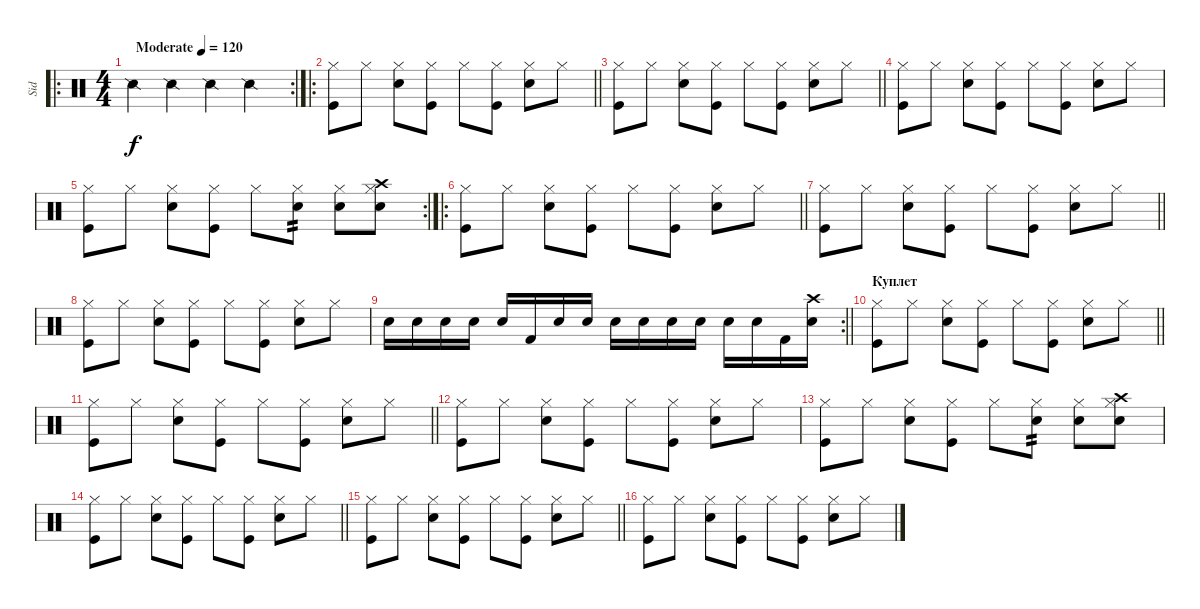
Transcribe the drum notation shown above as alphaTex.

\track ("Sid" "Sid") {instrument percussion}
\staff {score}
\articulation defaults
\ro
\rc 2
\ts (4 4)
\tempo (120 "Moderate")
\clef neutral
\ks c "Snare (side stick) 2".4{dy f} "Snare (side stick) 2".4 "Snare (side stick) 2".4 "Snare (side stick) 2".4
|
\ro
\barLineRight lightlight
("Kick (hit)" "Hi-Hat (closed)").8 "Hi-Hat (closed)".8 ("Electric Snare (hit)" "Hi-Hat (closed)").8 ("Kick (hit)" "Hi-Hat (closed)").8 "Hi-Hat (closed)".8 ("Kick (hit)" "Hi-Hat (closed)").8 ("Electric Snare (hit)" "Hi-Hat (closed)").8 "Hi-Hat (closed)".8 |
\barLineRight lightlight
("Kick (hit)" "Hi-Hat (closed)").8 "Hi-Hat (closed)".8 ("Electric Snare (hit)" "Hi-Hat (closed)").8 ("Kick (hit)" "Hi-Hat (closed)").8 "Hi-Hat (closed)".8 ("Kick (hit)" "Hi-Hat (closed)").8 ("Electric Snare (hit)" "Hi-Hat (closed)").8 "Hi-Hat (closed)".8 |
("Kick (hit)" "Hi-Hat (closed)").8 "Hi-Hat (closed)".8 ("Electric Snare (hit)" "Hi-Hat (closed)").8 ("Kick (hit)" "Hi-Hat (closed)").8 "Hi-Hat (closed)".8 ("Kick (hit)" "Hi-Hat (closed)").8 ("Electric Snare (hit)" "Hi-Hat (closed)").8 "Hi-Hat (closed)".8 |
\rc 2
("Kick (hit)" "Hi-Hat (closed)").8 "Hi-Hat (closed)".8 ("Electric Snare (hit)" "Hi-Hat (closed)").8 ("Kick (hit)" "Hi-Hat (closed)").8 "Hi-Hat (closed)".8 ("Snare (hit) 2" "Hi-Hat (closed)").8{tp 2} ("Electric Snare (hit)" "Hi-Hat (closed)").8 ("Snare (hit) 2" "Crash high (hit)" "Hi-Hat (closed)").8 |
\ro
\barLineRight lightlight
("Kick (hit)" "Hi-Hat (closed)").8 "Hi-Hat (closed)".8 ("Electric Snare (hit)" "Hi-Hat (closed)").8 ("Kick (hit)" "Hi-Hat (closed)").8 "Hi-Hat (closed)".8 ("Kick (hit)" "Hi-Hat (closed)").8 ("Electric Snare (hit)" "Hi-Hat (closed)").8 "Hi-Hat (closed)".8 |
\barLineRight lightlight
("Kick (hit)" "Hi-Hat (closed)").8 "Hi-Hat (closed)".8 ("Electric Snare (hit)" "Hi-Hat (closed)").8 ("Kick (hit)" "Hi-Hat (closed)").8 "Hi-Hat (closed)".8 ("Kick (hit)" "Hi-Hat (closed)").8 ("Electric Snare (hit)" "Hi-Hat (closed)").8 "Hi-Hat (closed)".8 |
("Kick (hit)" "Hi-Hat (closed)").8 "Hi-Hat (closed)".8 ("Electric Snare (hit)" "Hi-Hat (closed)").8 ("Kick (hit)" "Hi-Hat (closed)").8 "Hi-Hat (closed)".8 ("Kick (hit)" "Hi-Hat (closed)").8 ("Electric Snare (hit)" "Hi-Hat (closed)").8 "Hi-Hat (closed)".8 |
\rc 2
\barLineRight lightlight "Snare (hit) 2".16 "Snare (hit) 2".16 "Snare (hit) 2".16 "Electric Snare (hit)".16 "Snare (hit) 2".16 "Kick (hit) 2".16 "Electric Snare (hit)".16 "Snare (hit) 2".16 "Snare (hit) 2".16 "Snare (hit) 2".16 "Snare (hit) 2".16 "Electric Snare (hit)".16 "Snare (hit) 2".16 "Electric Snare (hit)".16 "Kick (hit) 2".16
("Crash high (hit)" "Snare (hit) 2").16 |
\section ("" "Куплет")
\barLineRight lightlight
("Kick (hit)" "Hi-Hat (closed)").8 "Hi-Hat (closed)".8 ("Electric Snare (hit)" "Hi-Hat (closed)").8 ("Kick (hit)" "Hi-Hat (closed)").8 "Hi-Hat (closed)".8 ("Kick (hit)" "Hi-Hat (closed)").8 ("Electric Snare (hit)" "Hi-Hat (closed)").8 "Hi-Hat (closed)".8 |
\barLineRight lightlight
("Kick (hit)" "Hi-Hat (closed)").8 "Hi-Hat (closed)".8 ("Electric Snare (hit)" "Hi-Hat (closed)").8 ("Kick (hit)" "Hi-Hat (closed)").8 "Hi-Hat (closed)".8 ("Kick (hit)" "Hi-Hat (closed)").8 ("Electric Snare (hit)" "Hi-Hat (closed)").8 "Hi-Hat (closed)".8 |
("Kick (hit)" "Hi-Hat (closed)").8 "Hi-Hat (closed)".8 ("Electric Snare (hit)" "Hi-Hat (closed)").8 ("Kick (hit)" "Hi-Hat (closed)").8 "Hi-Hat (closed)".8 ("Kick (hit)" "Hi-Hat (closed)").8 ("Electric Snare (hit)" "Hi-Hat (closed)").8 "Hi-Hat (closed)".8 |
("Kick (hit)" "Hi-Hat (closed)").8 "Hi-Hat (closed)".8 ("Electric Snare (hit)" "Hi-Hat (closed)").8 ("Kick (hit)" "Hi-Hat (closed)").8 "Hi-Hat (closed)".8 ("Snare (hit) 2" "Hi-Hat (closed)").8{tp 2} ("Electric Snare (hit)" "Hi-Hat (closed)").8 ("Snare (hit) 2" "Crash high (hit)" "Hi-Hat (closed)").8 |
\barLineRight lightlight
("Kick (hit)" "Hi-Hat (closed)").8 "Hi-Hat (closed)".8 ("Electric Snare (hit)" "Hi-Hat (closed)").8 ("Kick (hit)" "Hi-Hat (closed)").8 "Hi-Hat (closed)".8 ("Kick (hit)" "Hi-Hat (closed)").8 ("Electric Snare (hit)" "Hi-Hat (closed)").8 "Hi-Hat (closed)".8 |
\barLineRight lightlight
("Kick (hit)" "Hi-Hat (closed)").8 "Hi-Hat (closed)".8 ("Electric Snare (hit)" "Hi-Hat (closed)").8 ("Kick (hit)" "Hi-Hat (closed)").8 "Hi-Hat (closed)".8 ("Kick (hit)" "Hi-Hat (closed)").8 ("Electric Snare (hit)" "Hi-Hat (closed)").8 "Hi-Hat (closed)".8 |
("Kick (hit)" "Hi-Hat (closed)").8 "Hi-Hat (closed)".8 ("Electric Snare (hit)" "Hi-Hat (closed)").8 ("Kick (hit)" "Hi-Hat (closed)").8 "Hi-Hat (closed)".8 ("Kick (hit)" "Hi-Hat (closed)").8 ("Electric Snare (hit)" "Hi-Hat (closed)").8 "Hi-Hat (closed)".8
